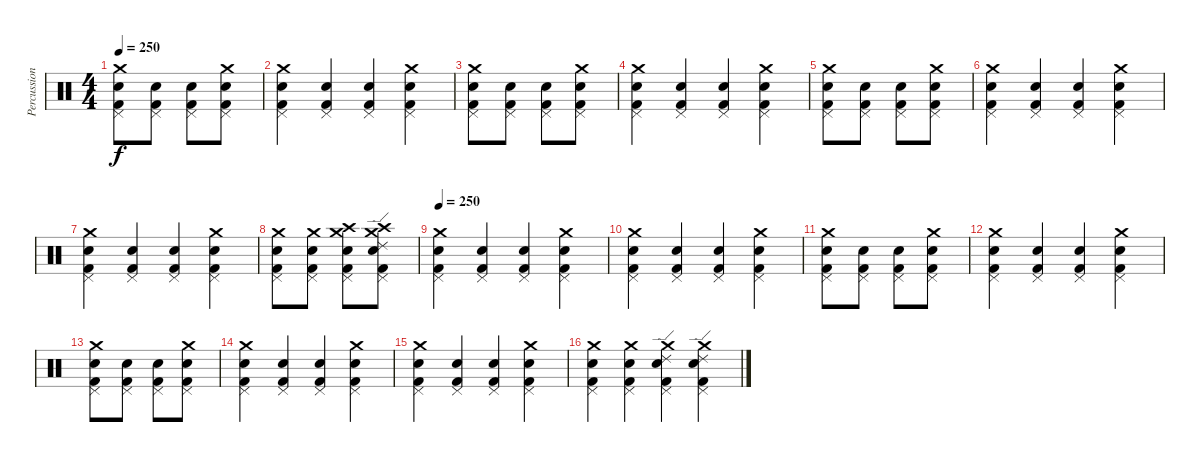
\track ("Percussion" "Percussion") {instrument percussion}
\staff {score}
\articulation defaults
\ts (4 4)
\tempo 250
\clef neutral
\ks c
("Crash medium (hit)" "Pedal Hi-Hat (hit)" "Snare (hit) 2" "Kick (hit) 2").8{dy f} ("Pedal Hi-Hat (hit)" "Snare (hit) 2" "Kick (hit) 2").8 ("Pedal Hi-Hat (hit)" "Snare (hit) 2" "Kick (hit) 2").8 ("Crash medium (hit)" "Pedal Hi-Hat (hit)" "Snare (hit) 2" "Kick (hit) 2").8 |
("Crash medium (hit)" "Pedal Hi-Hat (hit)" "Snare (hit) 2" "Kick (hit) 2").4 ("Pedal Hi-Hat (hit)" "Snare (hit) 2" "Kick (hit) 2").4 ("Pedal Hi-Hat (hit)" "Snare (hit) 2" "Kick (hit) 2").4 ("Crash medium (hit)" "Pedal Hi-Hat (hit)" "Snare (hit) 2" "Kick (hit) 2").4 |
("Crash medium (hit)" "Pedal Hi-Hat (hit)" "Snare (hit) 2" "Kick (hit) 2").8 ("Pedal Hi-Hat (hit)" "Snare (hit) 2" "Kick (hit) 2").8 ("Pedal Hi-Hat (hit)" "Snare (hit) 2" "Kick (hit) 2").8 ("Crash medium (hit)" "Pedal Hi-Hat (hit)" "Snare (hit) 2" "Kick (hit) 2").8 |
("Crash medium (hit)" "Pedal Hi-Hat (hit)" "Snare (hit) 2" "Kick (hit) 2").4 ("Pedal Hi-Hat (hit)" "Snare (hit) 2" "Kick (hit) 2").4 ("Pedal Hi-Hat (hit)" "Snare (hit) 2" "Kick (hit) 2").4 ("Crash medium (hit)" "Pedal Hi-Hat (hit)" "Snare (hit) 2" "Kick (hit) 2").4 |
("Crash medium (hit)" "Pedal Hi-Hat (hit)" "Snare (hit) 2" "Kick (hit) 2").8 ("Pedal Hi-Hat (hit)" "Snare (hit) 2" "Kick (hit) 2").8 ("Pedal Hi-Hat (hit)" "Snare (hit) 2" "Kick (hit) 2").8 ("Crash medium (hit)" "Pedal Hi-Hat (hit)" "Snare (hit) 2" "Kick (hit) 2").8 |
("Crash medium (hit)" "Pedal Hi-Hat (hit)" "Snare (hit) 2" "Kick (hit) 2").4 ("Pedal Hi-Hat (hit)" "Snare (hit) 2" "Kick (hit) 2").4 ("Pedal Hi-Hat (hit)" "Snare (hit) 2" "Kick (hit) 2").4 ("Crash medium (hit)" "Pedal Hi-Hat (hit)" "Snare (hit) 2" "Kick (hit) 2").4 |
("Crash medium (hit)" "Pedal Hi-Hat (hit)" "Snare (hit) 2" "Kick (hit) 2").4 ("Pedal Hi-Hat (hit)" "Snare (hit) 2" "Kick (hit) 2").4 ("Pedal Hi-Hat (hit)" "Snare (hit) 2" "Kick (hit) 2").4 ("Crash medium (hit)" "Pedal Hi-Hat (hit)" "Snare (hit) 2" "Kick (hit) 2").4 |
("Crash medium (hit)" "Pedal Hi-Hat (hit)" "Snare (hit) 2" "Kick (hit) 2").8 ("Crash medium (hit)" "Pedal Hi-Hat (hit)" "Snare (hit) 2" "Kick (hit) 2").8 ("Crash medium (hit)" "Pedal Hi-Hat (hit)" "Snare (hit) 2" "Crash high (hit)" "Kick (hit) 2").8 ("Ride (edge) 2" "Crash medium (hit)" "Pedal Hi-Hat (hit)" "Snare (hit) 2" "Crash high (hit)" "Kick (hit) 2").8 |
\tempo 250
("Crash medium (hit)" "Pedal Hi-Hat (hit)" "Snare (hit) 2" "Kick (hit) 2").4 ("Pedal Hi-Hat (hit)" "Snare (hit) 2" "Kick (hit) 2").4 ("Pedal Hi-Hat (hit)" "Snare (hit) 2" "Kick (hit) 2").4 ("Crash medium (hit)" "Pedal Hi-Hat (hit)" "Snare (hit) 2" "Kick (hit) 2").4 |
("Crash medium (hit)" "Pedal Hi-Hat (hit)" "Snare (hit) 2" "Kick (hit) 2").4 ("Pedal Hi-Hat (hit)" "Snare (hit) 2" "Kick (hit) 2").4 ("Pedal Hi-Hat (hit)" "Snare (hit) 2" "Kick (hit) 2").4 ("Crash medium (hit)" "Pedal Hi-Hat (hit)" "Snare (hit) 2" "Kick (hit) 2").4 |
("Crash medium (hit)" "Pedal Hi-Hat (hit)" "Snare (hit) 2" "Kick (hit) 2").8 ("Pedal Hi-Hat (hit)" "Snare (hit) 2" "Kick (hit) 2").8 ("Pedal Hi-Hat (hit)" "Snare (hit) 2" "Kick (hit) 2").8 ("Crash medium (hit)" "Pedal Hi-Hat (hit)" "Snare (hit) 2" "Kick (hit) 2").8 |
("Crash medium (hit)" "Pedal Hi-Hat (hit)" "Snare (hit) 2" "Kick (hit) 2").4 ("Pedal Hi-Hat (hit)" "Snare (hit) 2" "Kick (hit) 2").4 ("Pedal Hi-Hat (hit)" "Snare (hit) 2" "Kick (hit) 2").4 ("Crash medium (hit)" "Pedal Hi-Hat (hit)" "Snare (hit) 2" "Kick (hit) 2").4 |
("Crash medium (hit)" "Pedal Hi-Hat (hit)" "Snare (hit) 2" "Kick (hit) 2").8 ("Pedal Hi-Hat (hit)" "Snare (hit) 2" "Kick (hit) 2").8 ("Pedal Hi-Hat (hit)" "Snare (hit) 2" "Kick (hit) 2").8 ("Crash medium (hit)" "Pedal Hi-Hat (hit)" "Snare (hit) 2" "Kick (hit) 2").8 |
("Crash medium (hit)" "Pedal Hi-Hat (hit)" "Snare (hit) 2" "Kick (hit) 2").4 ("Pedal Hi-Hat (hit)" "Snare (hit) 2" "Kick (hit) 2").4 ("Pedal Hi-Hat (hit)" "Snare (hit) 2" "Kick (hit) 2").4 ("Crash medium (hit)" "Pedal Hi-Hat (hit)" "Snare (hit) 2" "Kick (hit) 2").4 |
("Crash medium (hit)" "Pedal Hi-Hat (hit)" "Snare (hit) 2" "Kick (hit) 2").4 ("Pedal Hi-Hat (hit)" "Snare (hit) 2" "Kick (hit) 2").4 ("Pedal Hi-Hat (hit)" "Snare (hit) 2" "Kick (hit) 2").4 ("Crash medium (hit)" "Pedal Hi-Hat (hit)" "Snare (hit) 2" "Kick (hit) 2").4 |
("Crash medium (hit)" "Pedal Hi-Hat (hit)" "Snare (hit) 2" "Kick (hit) 2").4 ("Crash medium (hit)" "Pedal Hi-Hat (hit)" "Snare (hit) 2" "Kick (hit) 2").4 ("Ride (edge) 2" "Crash medium (hit)" "Pedal Hi-Hat (hit)" "Snare (hit) 2" "Kick (hit) 2").4 ("Ride (edge) 2" "Crash medium (hit)" "Pedal Hi-Hat (hit)" "Snare (hit) 2" "Kick (hit) 2").4
